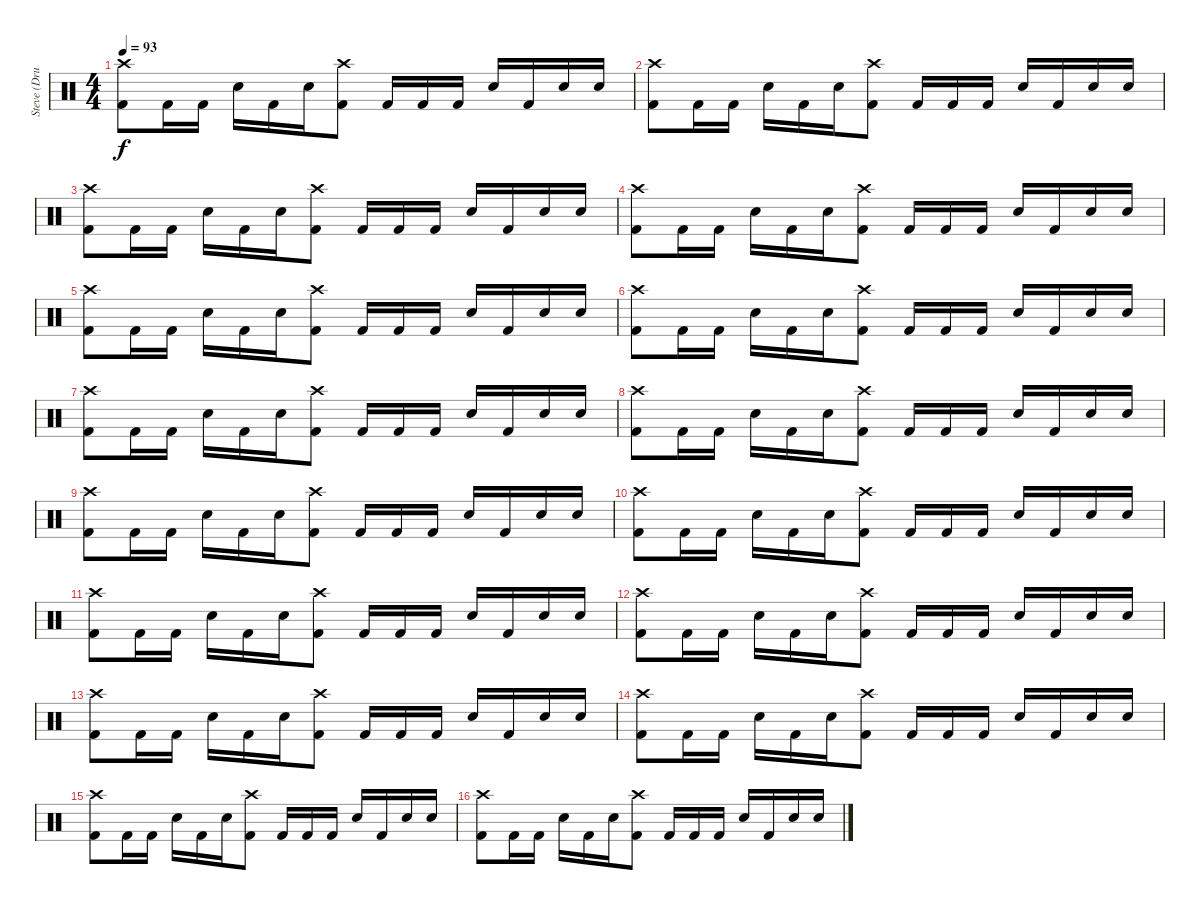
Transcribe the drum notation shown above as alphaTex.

\track ("Steve (Drums)" "Steve (Dru") {instrument percussion}
\staff {score}
\articulation defaults
\ts (4 4)
\tempo 93
\clef neutral
\ks c
("Crash high (hit)" "Kick (hit) 2").8{dy f} "Kick (hit) 2".16 "Kick (hit) 2".16 "Electric Snare (hit)".16 "Kick (hit) 2".16 "Electric Snare (hit)".16 ("Crash high (hit)" "Kick (hit) 2").8 "Kick (hit) 2".16 "Kick (hit) 2".16 "Kick (hit) 2".16 "Electric Snare (hit)".16 "Kick (hit) 2".16 "Electric Snare (hit)".16 "Electric Snare (hit)".16 |
("Crash high (hit)" "Kick (hit) 2").8 "Kick (hit) 2".16 "Kick (hit) 2".16 "Electric Snare (hit)".16 "Kick (hit) 2".16 "Electric Snare (hit)".16 ("Crash high (hit)" "Kick (hit) 2").8 "Kick (hit) 2".16 "Kick (hit) 2".16 "Kick (hit) 2".16 "Electric Snare (hit)".16 "Kick (hit) 2".16 "Electric Snare (hit)".16 "Electric Snare (hit)".16 |
("Crash high (hit)" "Kick (hit) 2").8 "Kick (hit) 2".16 "Kick (hit) 2".16 "Electric Snare (hit)".16 "Kick (hit) 2".16 "Electric Snare (hit)".16 ("Crash high (hit)" "Kick (hit) 2").8 "Kick (hit) 2".16 "Kick (hit) 2".16 "Kick (hit) 2".16 "Electric Snare (hit)".16 "Kick (hit) 2".16 "Electric Snare (hit)".16 "Electric Snare (hit)".16 |
("Crash high (hit)" "Kick (hit) 2").8 "Kick (hit) 2".16 "Kick (hit) 2".16 "Electric Snare (hit)".16 "Kick (hit) 2".16 "Electric Snare (hit)".16 ("Crash high (hit)" "Kick (hit) 2").8 "Kick (hit) 2".16 "Kick (hit) 2".16 "Kick (hit) 2".16 "Electric Snare (hit)".16 "Kick (hit) 2".16 "Electric Snare (hit)".16 "Electric Snare (hit)".16 |
("Crash high (hit)" "Kick (hit) 2").8 "Kick (hit) 2".16 "Kick (hit) 2".16 "Electric Snare (hit)".16 "Kick (hit) 2".16 "Electric Snare (hit)".16 ("Crash high (hit)" "Kick (hit) 2").8 "Kick (hit) 2".16 "Kick (hit) 2".16 "Kick (hit) 2".16 "Electric Snare (hit)".16 "Kick (hit) 2".16 "Electric Snare (hit)".16 "Electric Snare (hit)".16 |
("Crash high (hit)" "Kick (hit) 2").8 "Kick (hit) 2".16 "Kick (hit) 2".16 "Electric Snare (hit)".16 "Kick (hit) 2".16 "Electric Snare (hit)".16 ("Crash high (hit)" "Kick (hit) 2").8 "Kick (hit) 2".16 "Kick (hit) 2".16 "Kick (hit) 2".16 "Electric Snare (hit)".16 "Kick (hit) 2".16 "Electric Snare (hit)".16 "Electric Snare (hit)".16 |
("Crash high (hit)" "Kick (hit) 2").8 "Kick (hit) 2".16 "Kick (hit) 2".16 "Electric Snare (hit)".16 "Kick (hit) 2".16 "Electric Snare (hit)".16 ("Crash high (hit)" "Kick (hit) 2").8 "Kick (hit) 2".16 "Kick (hit) 2".16 "Kick (hit) 2".16 "Electric Snare (hit)".16 "Kick (hit) 2".16 "Electric Snare (hit)".16 "Electric Snare (hit)".16 |
("Crash high (hit)" "Kick (hit) 2").8 "Kick (hit) 2".16 "Kick (hit) 2".16 "Electric Snare (hit)".16 "Kick (hit) 2".16 "Electric Snare (hit)".16 ("Crash high (hit)" "Kick (hit) 2").8 "Kick (hit) 2".16 "Kick (hit) 2".16 "Kick (hit) 2".16 "Electric Snare (hit)".16 "Kick (hit) 2".16 "Electric Snare (hit)".16 "Electric Snare (hit)".16 |
("Crash high (hit)" "Kick (hit) 2").8 "Kick (hit) 2".16 "Kick (hit) 2".16 "Electric Snare (hit)".16 "Kick (hit) 2".16 "Electric Snare (hit)".16 ("Crash high (hit)" "Kick (hit) 2").8 "Kick (hit) 2".16 "Kick (hit) 2".16 "Kick (hit) 2".16 "Electric Snare (hit)".16 "Kick (hit) 2".16 "Electric Snare (hit)".16 "Electric Snare (hit)".16 |
("Crash high (hit)" "Kick (hit) 2").8 "Kick (hit) 2".16 "Kick (hit) 2".16 "Electric Snare (hit)".16 "Kick (hit) 2".16 "Electric Snare (hit)".16 ("Crash high (hit)" "Kick (hit) 2").8 "Kick (hit) 2".16 "Kick (hit) 2".16 "Kick (hit) 2".16 "Electric Snare (hit)".16 "Kick (hit) 2".16 "Electric Snare (hit)".16 "Electric Snare (hit)".16 |
("Crash high (hit)" "Kick (hit) 2").8 "Kick (hit) 2".16 "Kick (hit) 2".16 "Electric Snare (hit)".16 "Kick (hit) 2".16 "Electric Snare (hit)".16 ("Crash high (hit)" "Kick (hit) 2").8 "Kick (hit) 2".16 "Kick (hit) 2".16 "Kick (hit) 2".16 "Electric Snare (hit)".16 "Kick (hit) 2".16 "Electric Snare (hit)".16 "Electric Snare (hit)".16 |
("Crash high (hit)" "Kick (hit) 2").8 "Kick (hit) 2".16 "Kick (hit) 2".16 "Electric Snare (hit)".16 "Kick (hit) 2".16 "Electric Snare (hit)".16 ("Crash high (hit)" "Kick (hit) 2").8 "Kick (hit) 2".16 "Kick (hit) 2".16 "Kick (hit) 2".16 "Electric Snare (hit)".16 "Kick (hit) 2".16 "Electric Snare (hit)".16 "Electric Snare (hit)".16 |
("Crash high (hit)" "Kick (hit) 2").8 "Kick (hit) 2".16 "Kick (hit) 2".16 "Electric Snare (hit)".16 "Kick (hit) 2".16 "Electric Snare (hit)".16 ("Crash high (hit)" "Kick (hit) 2").8 "Kick (hit) 2".16 "Kick (hit) 2".16 "Kick (hit) 2".16 "Electric Snare (hit)".16 "Kick (hit) 2".16 "Electric Snare (hit)".16 "Electric Snare (hit)".16 |
("Crash high (hit)" "Kick (hit) 2").8 "Kick (hit) 2".16 "Kick (hit) 2".16 "Electric Snare (hit)".16 "Kick (hit) 2".16 "Electric Snare (hit)".16 ("Crash high (hit)" "Kick (hit) 2").8 "Kick (hit) 2".16 "Kick (hit) 2".16 "Kick (hit) 2".16 "Electric Snare (hit)".16 "Kick (hit) 2".16 "Electric Snare (hit)".16 "Electric Snare (hit)".16 |
("Crash high (hit)" "Kick (hit) 2").8 "Kick (hit) 2".16 "Kick (hit) 2".16 "Electric Snare (hit)".16 "Kick (hit) 2".16 "Electric Snare (hit)".16 ("Crash high (hit)" "Kick (hit) 2").8 "Kick (hit) 2".16 "Kick (hit) 2".16 "Kick (hit) 2".16 "Electric Snare (hit)".16 "Kick (hit) 2".16 "Electric Snare (hit)".16 "Electric Snare (hit)".16 |
("Crash high (hit)" "Kick (hit) 2").8 "Kick (hit) 2".16 "Kick (hit) 2".16 "Electric Snare (hit)".16 "Kick (hit) 2".16 "Electric Snare (hit)".16 ("Crash high (hit)" "Kick (hit) 2").8 "Kick (hit) 2".16 "Kick (hit) 2".16 "Kick (hit) 2".16 "Electric Snare (hit)".16 "Kick (hit) 2".16 "Electric Snare (hit)".16 "Electric Snare (hit)".16
